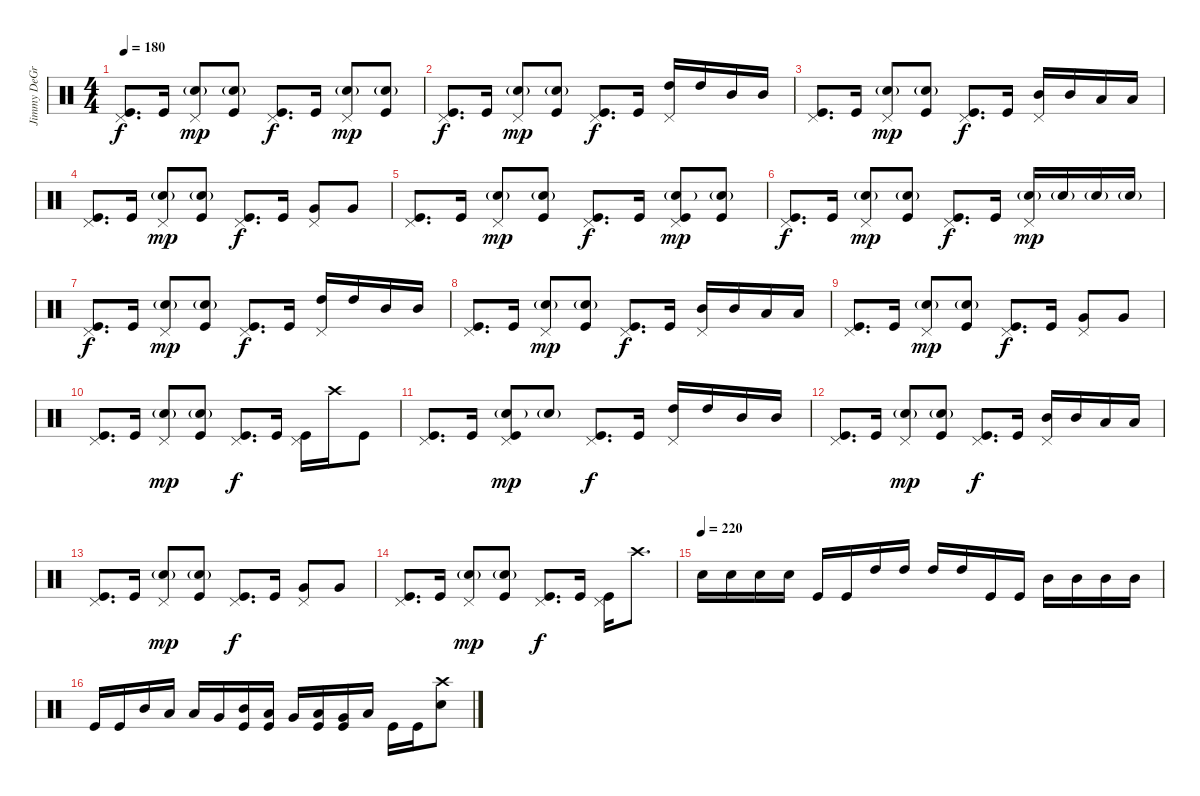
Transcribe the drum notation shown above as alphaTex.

\track ("Jimmy DeGrasso" "Jimmy DeGr") {instrument percussion}
\staff {score}
\articulation defaults
\ts (4 4)
\tempo 180
\clef neutral
\ks c
("Pedal Hi-Hat (hit)" "Kick (hit)").8{d dy f} "Kick (hit)".16 ("Pedal Hi-Hat (hit)" "Snare (hit) 2"{g}).8{dy mp} ("Snare (hit) 2"{g} "Kick (hit)").8 ("Pedal Hi-Hat (hit)" "Kick (hit)").8{d dy f} "Kick (hit)".16 ("Pedal Hi-Hat (hit)" "Snare (hit) 2"{g}).8{dy mp} ("Snare (hit) 2"{g} "Kick (hit)").8 |
("Pedal Hi-Hat (hit)" "Kick (hit)").8{d dy f} "Kick (hit)".16 ("Pedal Hi-Hat (hit)" "Snare (hit) 2"{g}).8{dy mp} ("Snare (hit) 2"{g} "Kick (hit)").8 ("Pedal Hi-Hat (hit)" "Kick (hit)").8{d dy f} "Kick (hit)".16 ("Pedal Hi-Hat (hit)" "High Tom (hit)").16 "High Tom (hit)".16 "Mid Tom (hit)".16 "Mid Tom (hit)".16 |
("Pedal Hi-Hat (hit)" "Kick (hit)").8{d} "Kick (hit)".16 ("Pedal Hi-Hat (hit)" "Snare (hit) 2"{g}).8{dy mp} ("Snare (hit) 2"{g} "Kick (hit)").8 ("Pedal Hi-Hat (hit)" "Kick (hit)").8{d dy f} "Kick (hit)".16 ("Pedal Hi-Hat (hit)" "Mid Tom (hit)").16 "Mid Tom (hit)".16 "Low Tom (hit)".16 "Low Tom (hit)".16 |
("Pedal Hi-Hat (hit)" "Kick (hit)").8{d} "Kick (hit)".16 ("Pedal Hi-Hat (hit)" "Snare (hit) 2"{g}).8{dy mp} ("Snare (hit) 2"{g} "Kick (hit)").8 ("Pedal Hi-Hat (hit)" "Kick (hit)").8{d dy f} "Kick (hit)".16 ("Pedal Hi-Hat (hit)" "Very Low Tom (hit)").8 "Very Low Tom (hit)".8 |
("Pedal Hi-Hat (hit)" "Kick (hit)").8{d} "Kick (hit)".16 ("Pedal Hi-Hat (hit)" "Snare (hit) 2"{g}).8{dy mp} ("Snare (hit) 2"{g} "Kick (hit)").8 ("Pedal Hi-Hat (hit)" "Kick (hit)").8{d dy f} "Kick (hit)".16 ("Pedal Hi-Hat (hit)" "Snare (hit) 2"{g} "Kick (hit)").8{dy mp} ("Snare (hit) 2"{g} "Kick (hit)").8 |
("Pedal Hi-Hat (hit)" "Kick (hit)").8{d dy f} "Kick (hit)".16 ("Pedal Hi-Hat (hit)" "Snare (hit) 2"{g}).8{dy mp} ("Snare (hit) 2"{g} "Kick (hit)").8 ("Pedal Hi-Hat (hit)" "Kick (hit)").8{d dy f} "Kick (hit)".16 ("Pedal Hi-Hat (hit)" "Snare (hit) 2"{g}).16{dy mp} "Snare (hit) 2"{g}.16 "Snare (hit) 2"{g}.16 "Snare (hit) 2"{g}.16 |
("Pedal Hi-Hat (hit)" "Kick (hit)").8{d dy f} "Kick (hit)".16 ("Pedal Hi-Hat (hit)" "Snare (hit) 2"{g}).8{dy mp} ("Snare (hit) 2"{g} "Kick (hit)").8 ("Pedal Hi-Hat (hit)" "Kick (hit)").8{d dy f} "Kick (hit)".16 ("Pedal Hi-Hat (hit)" "High Tom (hit)").16 "High Tom (hit)".16 "Mid Tom (hit)".16 "Mid Tom (hit)".16 |
("Pedal Hi-Hat (hit)" "Kick (hit)").8{d} "Kick (hit)".16 ("Pedal Hi-Hat (hit)" "Snare (hit) 2"{g}).8{dy mp} ("Snare (hit) 2"{g} "Kick (hit)").8 ("Pedal Hi-Hat (hit)" "Kick (hit)").8{d dy f} "Kick (hit)".16 ("Pedal Hi-Hat (hit)" "Mid Tom (hit)").16 "Mid Tom (hit)".16 "Low Tom (hit)".16 "Low Tom (hit)".16 |
("Pedal Hi-Hat (hit)" "Kick (hit)").8{d} "Kick (hit)".16 ("Pedal Hi-Hat (hit)" "Snare (hit) 2"{g}).8{dy mp} ("Snare (hit) 2"{g} "Kick (hit)").8 ("Pedal Hi-Hat (hit)" "Kick (hit)").8{d dy f} "Kick (hit)".16 ("Pedal Hi-Hat (hit)" "Very Low Tom (hit)").8 "Very Low Tom (hit)".8 |
("Pedal Hi-Hat (hit)" "Kick (hit)").8{d} "Kick (hit)".16 ("Pedal Hi-Hat (hit)" "Snare (hit) 2"{g}).8{dy mp} ("Snare (hit) 2"{g} "Kick (hit)").8 ("Pedal Hi-Hat (hit)" "Kick (hit)").8{d dy f} "Kick (hit)".16 ("Pedal Hi-Hat (hit)" "Kick (hit)").16 "Crash high (hit)".16 "Kick (hit)".8 |
("Pedal Hi-Hat (hit)" "Kick (hit)").8{d} "Kick (hit)".16 ("Pedal Hi-Hat (hit)" "Snare (hit) 2"{g} "Kick (hit)").8{dy mp} "Snare (hit) 2"{g}.8 ("Pedal Hi-Hat (hit)" "Kick (hit)").8{d dy f} "Kick (hit)".16 ("Pedal Hi-Hat (hit)" "High Tom (hit)").16 "High Tom (hit)".16 "Mid Tom (hit)".16 "Mid Tom (hit)".16 |
("Pedal Hi-Hat (hit)" "Kick (hit)").8{d} "Kick (hit)".16 ("Pedal Hi-Hat (hit)" "Snare (hit) 2"{g}).8{dy mp} ("Snare (hit) 2"{g} "Kick (hit)").8 ("Pedal Hi-Hat (hit)" "Kick (hit)").8{d dy f} "Kick (hit)".16 ("Pedal Hi-Hat (hit)" "Mid Tom (hit)").16 "Mid Tom (hit)".16 "Low Tom (hit)".16 "Low Tom (hit)".16 |
("Pedal Hi-Hat (hit)" "Kick (hit)").8{d} "Kick (hit)".16 ("Pedal Hi-Hat (hit)" "Snare (hit) 2"{g}).8{dy mp} ("Snare (hit) 2"{g} "Kick (hit)").8 ("Pedal Hi-Hat (hit)" "Kick (hit)").8{d dy f} "Kick (hit)".16 ("Pedal Hi-Hat (hit)" "Very Low Tom (hit)").8 "Very Low Tom (hit)".8 |
("Pedal Hi-Hat (hit)" "Kick (hit)").8{d} "Kick (hit)".16 ("Pedal Hi-Hat (hit)" "Snare (hit) 2"{g}).8{dy mp} ("Snare (hit) 2"{g} "Kick (hit)").8 ("Pedal Hi-Hat (hit)" "Kick (hit)").8{d dy f} "Kick (hit)".16 ("Pedal Hi-Hat (hit)" "Kick (hit)").16 "Crash high (hit)".8{d} |
\tempo (220)
"Snare (hit) 2".16 "Snare (hit) 2".16 "Snare (hit) 2".16 "Snare (hit) 2".16 "Kick (hit)".16 "Kick (hit)".16 "High Tom (hit)".16 "High Tom (hit)".16 "High Tom (hit)".16 "High Tom (hit)".16 "Kick (hit)".16 "Kick (hit)".16 "Mid Tom (hit)".16 "Mid Tom (hit)".16 "Mid Tom (hit)".16 "Mid Tom (hit)".16 |
"Kick (hit)".16 "Kick (hit)".16 "Mid Tom (hit)".16 "Low Tom (hit)".16 "Low Tom (hit)".16 "Very Low Tom (hit)".16 ("Mid Tom (hit)" "Kick (hit)").16 ("Low Tom (hit)" "Kick (hit)").16 "Very Low Tom (hit)".16 ("Low Tom (hit)" "Kick (hit)").16 ("Very Low Tom (hit)" "Kick (hit)").16 "Low Floor Tom (hit)".16 "Kick (hit)".16 "Kick (hit)".16 ("Crash high (hit)" "Snare (hit) 2").8
